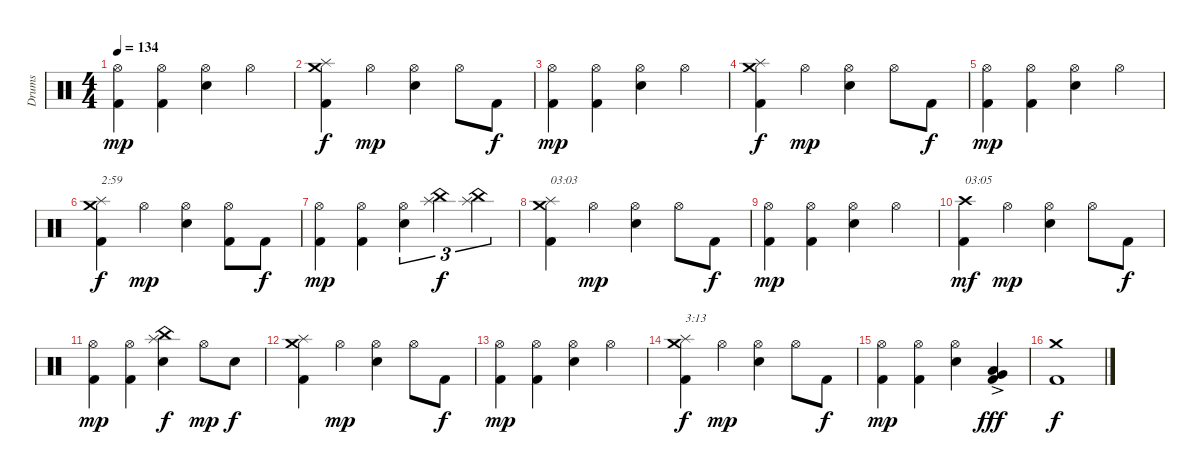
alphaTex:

\track ("Drums" "Drums") {instrument percussion}
\staff {score}
\articulation defaults
\ts (4 4)
\tempo 134
\clef neutral
\ks c
("Kick (hit) 2" "Hi-Hat (open)").4{dy mp} ("Kick (hit) 2" "Hi-Hat (open)").4 ("Electric Snare (hit)" "Hi-Hat (open)").4 "Hi-Hat (open)".4 |
("Kick (hit) 2" "Splash (hit)" "Crash medium (hit)").4{dy f} "Hi-Hat (open)".4{dy mp} ("Electric Snare (hit)" "Hi-Hat (open)").4 "Hi-Hat (open)".8 "Kick (hit) 2".8{dy f} |
("Kick (hit) 2" "Hi-Hat (open)").4{dy mp} ("Kick (hit) 2" "Hi-Hat (open)").4 ("Electric Snare (hit)" "Hi-Hat (open)").4 "Hi-Hat (open)".4 |
("Kick (hit) 2" "Splash (hit)" "Crash medium (hit)").4{dy f} "Hi-Hat (open)".4{dy mp} ("Electric Snare (hit)" "Hi-Hat (open)").4 "Hi-Hat (open)".8 "Kick (hit) 2".8{dy f} |
("Kick (hit) 2" "Hi-Hat (open)").4{dy mp} ("Kick (hit) 2" "Hi-Hat (open)").4 ("Electric Snare (hit)" "Hi-Hat (open)").4 "Hi-Hat (open)".4 |
("Kick (hit) 2" "Splash (hit)" "Crash medium (hit)").4{txt "2:59" dy f} "Hi-Hat (open)".4{dy mp} ("Electric Snare (hit)" "Hi-Hat (open)").4 ("Kick (hit) 2" "Hi-Hat (open)").8 "Kick (hit) 2".8{dy f} |
("Kick (hit) 2" "Hi-Hat (open)").4{dy mp} ("Kick (hit) 2" "Hi-Hat (open)").4 ("Electric Snare (hit)" "Hi-Hat (open)").4{tu (3 2)} ("China (hit)" "Splash (hit)").4{tu (3 2) dy f} ("China (hit)" "Splash (hit)").4{tu (3 2)} |
("Kick (hit) 2" "Splash (hit)" "Crash medium (hit)").4{txt "03:03"} "Hi-Hat (open)".4{dy mp} ("Electric Snare (hit)" "Hi-Hat (open)").4 "Hi-Hat (open)".8 "Kick (hit) 2".8{dy f} |
("Kick (hit) 2" "Hi-Hat (open)").4{dy mp} ("Kick (hit) 2" "Hi-Hat (open)").4 ("Electric Snare (hit)" "Hi-Hat (open)").4 "Hi-Hat (open)".4 |
("Kick (hit) 2" "Crash high (hit)").4{txt "03:05" dy mf} "Hi-Hat (open)".4{dy mp} ("Electric Snare (hit)" "Hi-Hat (open)").4 "Hi-Hat (open)".8 "Kick (hit) 2".8{dy f} |
("Kick (hit) 2" "Hi-Hat (open)").4{dy mp} ("Kick (hit) 2" "Hi-Hat (open)").4 ("Electric Snare (hit)" "Splash (hit)" "China (hit)").4{dy f} "Hi-Hat (open)".8{dy mp} "Electric Snare (hit)".8{dy f} |
("Kick (hit) 2" "Splash (hit)" "Crash medium (hit)").4 "Hi-Hat (open)".4{dy mp} ("Electric Snare (hit)" "Hi-Hat (open)").4 "Hi-Hat (open)".8 "Kick (hit) 2".8{dy f} |
("Kick (hit) 2" "Hi-Hat (open)").4{dy mp} ("Kick (hit) 2" "Hi-Hat (open)").4 ("Electric Snare (hit)" "Hi-Hat (open)").4 "Hi-Hat (open)".4 |
("Kick (hit) 2" "Splash (hit)" "Crash medium (hit)").4{txt "3:13" dy f} "Hi-Hat (open)".4{dy mp} ("Electric Snare (hit)" "Hi-Hat (open)").4 "Hi-Hat (open)".8 "Kick (hit) 2".8{dy f} |
("Kick (hit) 2" "Hi-Hat (open)").4{dy mp} ("Kick (hit) 2" "Hi-Hat (open)").4 ("Electric Snare (hit)" "Hi-Hat (open)").4 ("Kick (hit) 2" "Very Low Tom (hit)"{ac} "Low Tom (hit)"{ac}).4{dy fff} |
("Kick (hit) 2" "Crash medium (hit)").1{dy f}
